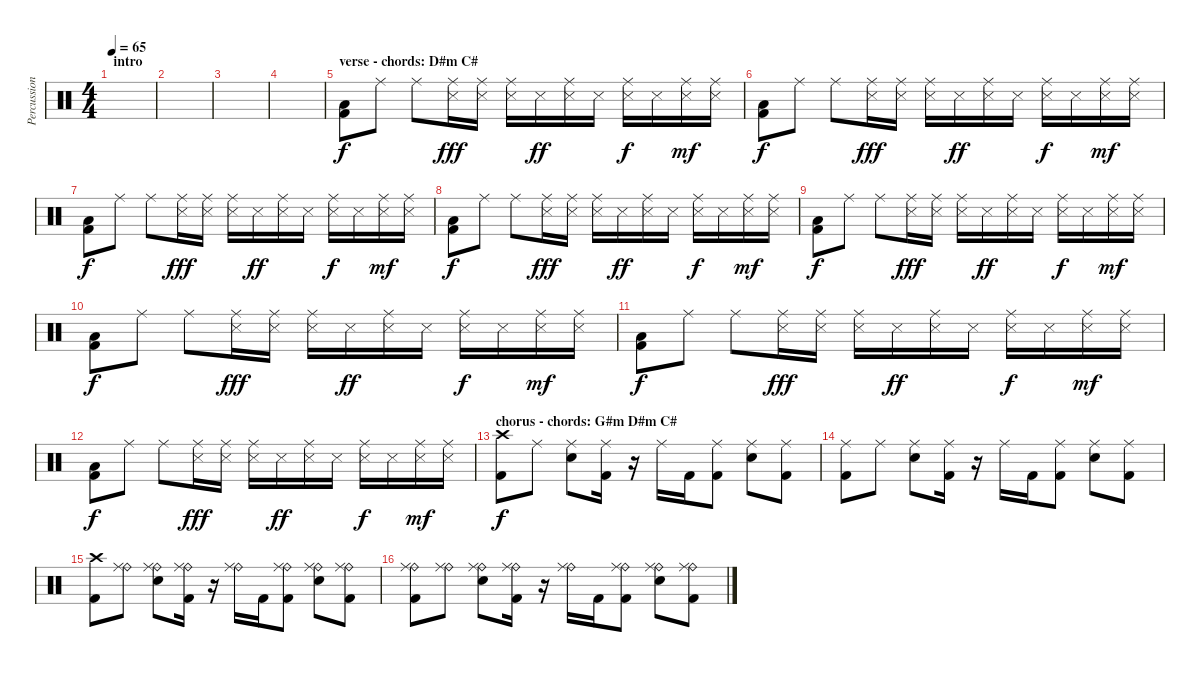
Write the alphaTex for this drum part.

\track ("Percussion" "Percussion") {instrument percussion}
\staff {score}
\articulation defaults
\ts (4 4)
\section ("" "intro")
\tempo 65
\clef neutral
\ks c
|
|
|
|
\section ("" "verse - chords: D#m C#")
("Kick (hit) 2" "Low Floor Tom (hit)").8 "Ride (middle)".8 "Ride (middle)".8 ("Ride (middle)" "Snare (side stick) 3").16{dy fff} ("Ride (middle)" "Snare (side stick) 3").16 ("Ride (middle)" "Snare (side stick) 3").16 "Snare (side stick) 3".16{dy ff} ("Ride (middle)" "Snare (side stick) 3").16 "Snare (side stick) 3".16 ("Ride (middle)" "Snare (side stick) 3").16{dy f} "Snare (side stick) 3".16 ("Ride (middle)" "Snare (side stick) 3").16{dy mf} ("Ride (middle)" "Snare (side stick) 3").16 |
("Kick (hit) 2" "Low Floor Tom (hit)").8{dy f} "Ride (middle)".8 "Ride (middle)".8 ("Ride (middle)" "Snare (side stick) 3").16{dy fff} ("Ride (middle)" "Snare (side stick) 3").16 ("Ride (middle)" "Snare (side stick) 3").16 "Snare (side stick) 3".16{dy ff} ("Ride (middle)" "Snare (side stick) 3").16 "Snare (side stick) 3".16 ("Ride (middle)" "Snare (side stick) 3").16{dy f} "Snare (side stick) 3".16 ("Ride (middle)" "Snare (side stick) 3").16{dy mf} ("Ride (middle)" "Snare (side stick) 3").16 |
("Kick (hit) 2" "Low Floor Tom (hit)").8{dy f} "Ride (middle)".8 "Ride (middle)".8 ("Ride (middle)" "Snare (side stick) 3").16{dy fff} ("Ride (middle)" "Snare (side stick) 3").16 ("Ride (middle)" "Snare (side stick) 3").16 "Snare (side stick) 3".16{dy ff} ("Ride (middle)" "Snare (side stick) 3").16 "Snare (side stick) 3".16 ("Ride (middle)" "Snare (side stick) 3").16{dy f} "Snare (side stick) 3".16 ("Ride (middle)" "Snare (side stick) 3").16{dy mf} ("Ride (middle)" "Snare (side stick) 3").16 |
("Kick (hit) 2" "Low Floor Tom (hit)").8{dy f} "Ride (middle)".8 "Ride (middle)".8 ("Ride (middle)" "Snare (side stick) 3").16{dy fff} ("Ride (middle)" "Snare (side stick) 3").16 ("Ride (middle)" "Snare (side stick) 3").16 "Snare (side stick) 3".16{dy ff} ("Ride (middle)" "Snare (side stick) 3").16 "Snare (side stick) 3".16 ("Ride (middle)" "Snare (side stick) 3").16{dy f} "Snare (side stick) 3".16 ("Ride (middle)" "Snare (side stick) 3").16{dy mf} ("Ride (middle)" "Snare (side stick) 3").16 |
("Kick (hit) 2" "Low Floor Tom (hit)").8{dy f} "Ride (middle)".8 "Ride (middle)".8 ("Ride (middle)" "Snare (side stick) 3").16{dy fff} ("Ride (middle)" "Snare (side stick) 3").16 ("Ride (middle)" "Snare (side stick) 3").16 "Snare (side stick) 3".16{dy ff} ("Ride (middle)" "Snare (side stick) 3").16 "Snare (side stick) 3".16 ("Ride (middle)" "Snare (side stick) 3").16{dy f} "Snare (side stick) 3".16 ("Ride (middle)" "Snare (side stick) 3").16{dy mf} ("Ride (middle)" "Snare (side stick) 3").16 |
("Kick (hit) 2" "Low Floor Tom (hit)").8{dy f} "Ride (middle)".8 "Ride (middle)".8 ("Ride (middle)" "Snare (side stick) 3").16{dy fff} ("Ride (middle)" "Snare (side stick) 3").16 ("Ride (middle)" "Snare (side stick) 3").16 "Snare (side stick) 3".16{dy ff} ("Ride (middle)" "Snare (side stick) 3").16 "Snare (side stick) 3".16 ("Ride (middle)" "Snare (side stick) 3").16{dy f} "Snare (side stick) 3".16 ("Ride (middle)" "Snare (side stick) 3").16{dy mf} ("Ride (middle)" "Snare (side stick) 3").16 |
("Kick (hit) 2" "Low Floor Tom (hit)").8{dy f} "Ride (middle)".8 "Ride (middle)".8 ("Ride (middle)" "Snare (side stick) 3").16{dy fff} ("Ride (middle)" "Snare (side stick) 3").16 ("Ride (middle)" "Snare (side stick) 3").16 "Snare (side stick) 3".16{dy ff} ("Ride (middle)" "Snare (side stick) 3").16 "Snare (side stick) 3".16 ("Ride (middle)" "Snare (side stick) 3").16{dy f} "Snare (side stick) 3".16 ("Ride (middle)" "Snare (side stick) 3").16{dy mf} ("Ride (middle)" "Snare (side stick) 3").16 |
("Kick (hit) 2" "Low Floor Tom (hit)").8{dy f} "Ride (middle)".8 "Ride (middle)".8 ("Ride (middle)" "Snare (side stick) 3").16{dy fff} ("Ride (middle)" "Snare (side stick) 3").16 ("Ride (middle)" "Snare (side stick) 3").16 "Snare (side stick) 3".16{dy ff} ("Ride (middle)" "Snare (side stick) 3").16 "Snare (side stick) 3".16 ("Ride (middle)" "Snare (side stick) 3").16{dy f} "Snare (side stick) 3".16 ("Ride (middle)" "Snare (side stick) 3").16{dy mf} ("Ride (middle)" "Snare (side stick) 3").16 |
\section ("" "chorus - chords: G#m D#m C#")
("Crash high (hit)" "Kick (hit) 2").8{dy f volume 13} "Ride (middle)".8 ("Ride (middle)" "Electric Snare (hit)").8 ("Ride (middle)" "Kick (hit) 2").16 r.16 "Ride (middle)".16 "Kick (hit) 2".16 ("Ride (middle)" "Kick (hit) 2").8 ("Ride (middle)" "Electric Snare (hit)").8 ("Ride (middle)" "Kick (hit) 2").8 |
("Ride (middle)" "Kick (hit) 2").8 "Ride (middle)".8 ("Ride (middle)" "Electric Snare (hit)").8 ("Ride (middle)" "Kick (hit) 2").16 r.16 "Ride (middle)".16 "Kick (hit) 2".16 ("Ride (middle)" "Kick (hit) 2").8 ("Ride (middle)" "Electric Snare (hit)").8 ("Ride (middle)" "Kick (hit) 2").8 |
("Crash high (hit)" "Kick (hit) 2").8 ("Ride (bell)" "Ride (middle)").8 ("Ride (bell)" "Ride (middle)" "Electric Snare (hit)").8 ("Ride (bell)" "Ride (middle)" "Kick (hit) 2").16 r.16 ("Ride (bell)" "Ride (middle)").16 "Kick (hit) 2".16 ("Ride (bell)" "Ride (middle)" "Kick (hit) 2").8 ("Ride (bell)" "Ride (middle)" "Electric Snare (hit)").8 ("Ride (bell)" "Ride (middle)" "Kick (hit) 2").8 |
("Ride (bell)" "Ride (middle)" "Kick (hit) 2").8 ("Ride (bell)" "Ride (middle)").8 ("Ride (bell)" "Ride (middle)" "Electric Snare (hit)").8 ("Ride (bell)" "Ride (middle)" "Kick (hit) 2").16 r.16 ("Ride (bell)" "Ride (middle)").16 "Kick (hit) 2".16 ("Ride (bell)" "Ride (middle)" "Kick (hit) 2").8 ("Ride (bell)" "Ride (middle)" "Electric Snare (hit)").8 ("Ride (bell)" "Ride (middle)" "Kick (hit) 2").8
